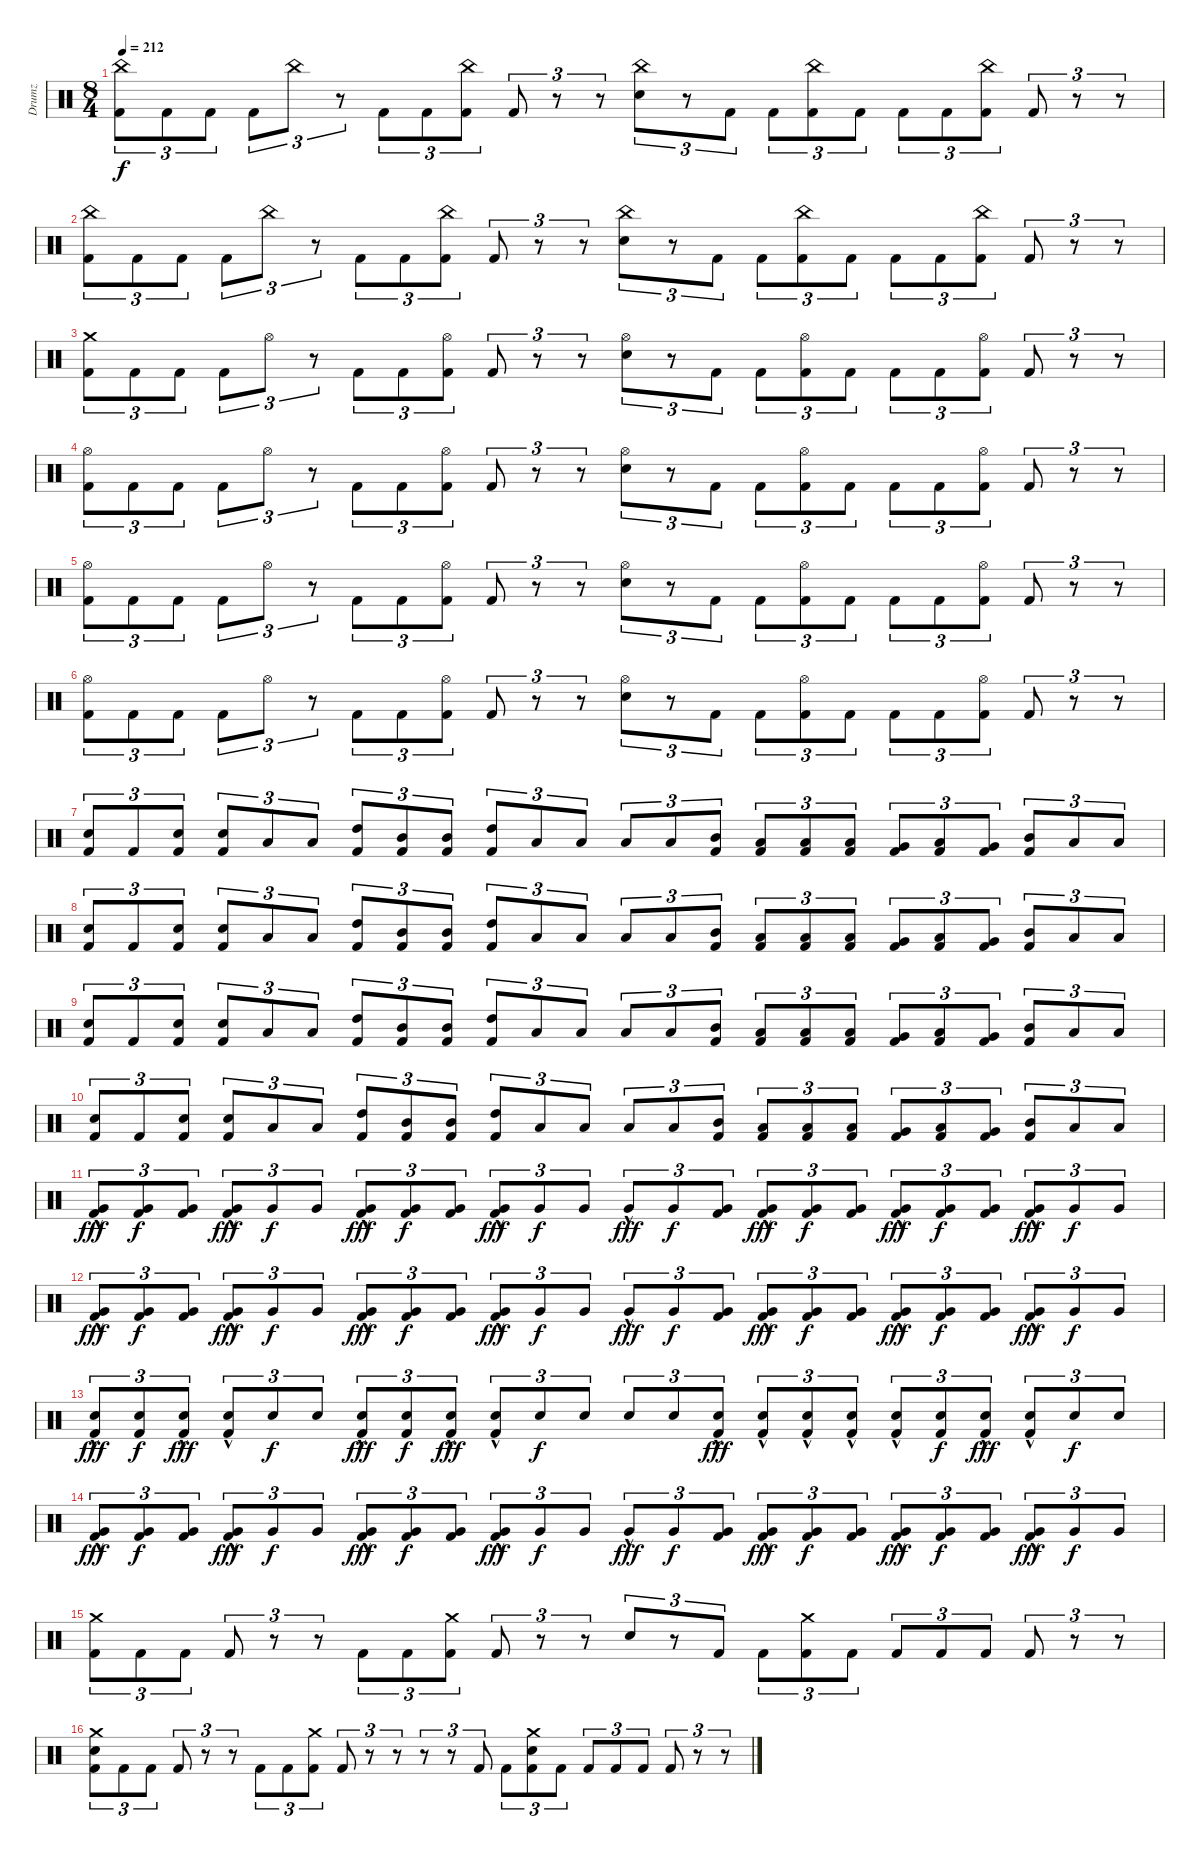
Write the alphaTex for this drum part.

\track ("Drumz" "Drumz") {instrument percussion}
\staff {score}
\articulation defaults
\ts (8 4)
\tempo 212
\clef neutral
\ks c
("China (hit)" "Kick (hit) 2").8{tu (3 2) dy f} "Kick (hit) 2".8{tu (3 2)} "Kick (hit) 2".8{tu (3 2)} "Kick (hit) 2".8{tu (3 2)} "China (hit)".8{tu (3 2)} r.8{tu (3 2)} "Kick (hit) 2".8{tu (3 2)} "Kick (hit) 2".8{tu (3 2)} ("China (hit)" "Kick (hit) 2").8{tu (3 2)} "Kick (hit) 2".8{tu (3 2)} r.8{tu (3 2)} r.8{tu (3 2)} ("China (hit)" "Electric Snare (hit)").8{tu (3 2)} r.8{tu (3 2)} "Kick (hit) 2".8{tu (3 2)} "Kick (hit) 2".8{tu (3 2)} ("China (hit)" "Kick (hit) 2").8{tu (3 2)} "Kick (hit) 2".8{tu (3 2)} "Kick (hit) 2".8{tu (3 2)} "Kick (hit) 2".8{tu (3 2)} ("China (hit)" "Kick (hit) 2").8{tu (3 2)} "Kick (hit) 2".8{tu (3 2)} r.8{tu (3 2)} r.8{tu (3 2)} |
("China (hit)" "Kick (hit) 2").8{tu (3 2)} "Kick (hit) 2".8{tu (3 2)} "Kick (hit) 2".8{tu (3 2)} "Kick (hit) 2".8{tu (3 2)} "China (hit)".8{tu (3 2)} r.8{tu (3 2)} "Kick (hit) 2".8{tu (3 2)} "Kick (hit) 2".8{tu (3 2)} ("China (hit)" "Kick (hit) 2").8{tu (3 2)} "Kick (hit) 2".8{tu (3 2)} r.8{tu (3 2)} r.8{tu (3 2)} ("China (hit)" "Electric Snare (hit)").8{tu (3 2)} r.8{tu (3 2)} "Kick (hit) 2".8{tu (3 2)} "Kick (hit) 2".8{tu (3 2)} ("China (hit)" "Kick (hit) 2").8{tu (3 2)} "Kick (hit) 2".8{tu (3 2)} "Kick (hit) 2".8{tu (3 2)} "Kick (hit) 2".8{tu (3 2)} ("China (hit)" "Kick (hit) 2").8{tu (3 2)} "Kick (hit) 2".8{tu (3 2)} r.8{tu (3 2)} r.8{tu (3 2)} |
("Crash medium (hit)" "Kick (hit) 2").8{tu (3 2)} "Kick (hit) 2".8{tu (3 2)} "Kick (hit) 2".8{tu (3 2)} "Kick (hit) 2".8{tu (3 2)} "Hi-Hat (open)".8{tu (3 2)} r.8{tu (3 2)} "Kick (hit) 2".8{tu (3 2)} "Kick (hit) 2".8{tu (3 2)} ("Hi-Hat (open)" "Kick (hit) 2").8{tu (3 2)} "Kick (hit) 2".8{tu (3 2)} r.8{tu (3 2)} r.8{tu (3 2)} ("Hi-Hat (open)" "Electric Snare (hit)").8{tu (3 2)} r.8{tu (3 2)} "Kick (hit) 2".8{tu (3 2)} "Kick (hit) 2".8{tu (3 2)} ("Hi-Hat (open)" "Kick (hit) 2").8{tu (3 2)} "Kick (hit) 2".8{tu (3 2)} "Kick (hit) 2".8{tu (3 2)} "Kick (hit) 2".8{tu (3 2)} ("Hi-Hat (open)" "Kick (hit) 2").8{tu (3 2)} "Kick (hit) 2".8{tu (3 2)} r.8{tu (3 2)} r.8{tu (3 2)} |
("Hi-Hat (open)" "Kick (hit) 2").8{tu (3 2)} "Kick (hit) 2".8{tu (3 2)} "Kick (hit) 2".8{tu (3 2)} "Kick (hit) 2".8{tu (3 2)} "Hi-Hat (open)".8{tu (3 2)} r.8{tu (3 2)} "Kick (hit) 2".8{tu (3 2)} "Kick (hit) 2".8{tu (3 2)} ("Hi-Hat (open)" "Kick (hit) 2").8{tu (3 2)} "Kick (hit) 2".8{tu (3 2)} r.8{tu (3 2)} r.8{tu (3 2)} ("Hi-Hat (open)" "Electric Snare (hit)").8{tu (3 2)} r.8{tu (3 2)} "Kick (hit) 2".8{tu (3 2)} "Kick (hit) 2".8{tu (3 2)} ("Hi-Hat (open)" "Kick (hit) 2").8{tu (3 2)} "Kick (hit) 2".8{tu (3 2)} "Kick (hit) 2".8{tu (3 2)} "Kick (hit) 2".8{tu (3 2)} ("Hi-Hat (open)" "Kick (hit) 2").8{tu (3 2)} "Kick (hit) 2".8{tu (3 2)} r.8{tu (3 2)} r.8{tu (3 2)} |
("Hi-Hat (open)" "Kick (hit) 2").8{tu (3 2)} "Kick (hit) 2".8{tu (3 2)} "Kick (hit) 2".8{tu (3 2)} "Kick (hit) 2".8{tu (3 2)} "Hi-Hat (open)".8{tu (3 2)} r.8{tu (3 2)} "Kick (hit) 2".8{tu (3 2)} "Kick (hit) 2".8{tu (3 2)} ("Hi-Hat (open)" "Kick (hit) 2").8{tu (3 2)} "Kick (hit) 2".8{tu (3 2)} r.8{tu (3 2)} r.8{tu (3 2)} ("Hi-Hat (open)" "Electric Snare (hit)").8{tu (3 2)} r.8{tu (3 2)} "Kick (hit) 2".8{tu (3 2)} "Kick (hit) 2".8{tu (3 2)} ("Hi-Hat (open)" "Kick (hit) 2").8{tu (3 2)} "Kick (hit) 2".8{tu (3 2)} "Kick (hit) 2".8{tu (3 2)} "Kick (hit) 2".8{tu (3 2)} ("Hi-Hat (open)" "Kick (hit) 2").8{tu (3 2)} "Kick (hit) 2".8{tu (3 2)} r.8{tu (3 2)} r.8{tu (3 2)} |
("Hi-Hat (open)" "Kick (hit) 2").8{tu (3 2)} "Kick (hit) 2".8{tu (3 2)} "Kick (hit) 2".8{tu (3 2)} "Kick (hit) 2".8{tu (3 2)} "Hi-Hat (open)".8{tu (3 2)} r.8{tu (3 2)} "Kick (hit) 2".8{tu (3 2)} "Kick (hit) 2".8{tu (3 2)} ("Hi-Hat (open)" "Kick (hit) 2").8{tu (3 2)} "Kick (hit) 2".8{tu (3 2)} r.8{tu (3 2)} r.8{tu (3 2)} ("Hi-Hat (open)" "Electric Snare (hit)").8{tu (3 2)} r.8{tu (3 2)} "Kick (hit) 2".8{tu (3 2)} "Kick (hit) 2".8{tu (3 2)} ("Hi-Hat (open)" "Kick (hit) 2").8{tu (3 2)} "Kick (hit) 2".8{tu (3 2)} "Kick (hit) 2".8{tu (3 2)} "Kick (hit) 2".8{tu (3 2)} ("Hi-Hat (open)" "Kick (hit) 2").8{tu (3 2)} "Kick (hit) 2".8{tu (3 2)} r.8{tu (3 2)} r.8{tu (3 2)} |
("Electric Snare (hit)" "Kick (hit) 2").8{tu (3 2)} "Kick (hit) 2".8{tu (3 2)} ("Electric Snare (hit)" "Kick (hit) 2").8{tu (3 2)} ("Electric Snare (hit)" "Kick (hit) 2").8{tu (3 2)} "Low Floor Tom (hit)".8{tu (3 2)} "Low Floor Tom (hit)".8{tu (3 2)} ("High Tom (hit)" "Kick (hit) 2").8{tu (3 2)} ("Mid Tom (hit)" "Kick (hit) 2").8{tu (3 2)} ("Mid Tom (hit)" "Kick (hit) 2").8{tu (3 2)} ("High Tom (hit)" "Kick (hit) 2").8{tu (3 2)} "Low Floor Tom (hit)".8{tu (3 2)} "Low Floor Tom (hit)".8{tu (3 2)} "Low Floor Tom (hit)".8{tu (3 2)} "Low Floor Tom (hit)".8{tu (3 2)} ("Mid Tom (hit)" "Kick (hit) 2").8{tu (3 2)} ("Low Tom (hit)" "Kick (hit) 2").8{tu (3 2)} ("Low Tom (hit)" "Kick (hit) 2").8{tu (3 2)} ("Low Tom (hit)" "Kick (hit) 2").8{tu (3 2)} ("Very Low Tom (hit)" "Kick (hit) 2").8{tu (3 2)} ("Low Tom (hit)" "Kick (hit) 2").8{tu (3 2)} ("Very Low Tom (hit)" "Kick (hit) 2").8{tu (3 2)} ("Mid Tom (hit)" "Kick (hit) 2").8{tu (3 2)} "Low Floor Tom (hit)".8{tu (3 2)} "Low Floor Tom (hit)".8{tu (3 2)} |
("Electric Snare (hit)" "Kick (hit) 2").8{tu (3 2)} "Kick (hit) 2".8{tu (3 2)} ("Electric Snare (hit)" "Kick (hit) 2").8{tu (3 2)} ("Electric Snare (hit)" "Kick (hit) 2").8{tu (3 2)} "Low Floor Tom (hit)".8{tu (3 2)} "Low Floor Tom (hit)".8{tu (3 2)} ("High Tom (hit)" "Kick (hit) 2").8{tu (3 2)} ("Mid Tom (hit)" "Kick (hit) 2").8{tu (3 2)} ("Mid Tom (hit)" "Kick (hit) 2").8{tu (3 2)} ("High Tom (hit)" "Kick (hit) 2").8{tu (3 2)} "Low Floor Tom (hit)".8{tu (3 2)} "Low Floor Tom (hit)".8{tu (3 2)} "Low Floor Tom (hit)".8{tu (3 2)} "Low Floor Tom (hit)".8{tu (3 2)} ("Mid Tom (hit)" "Kick (hit) 2").8{tu (3 2)} ("Low Tom (hit)" "Kick (hit) 2").8{tu (3 2)} ("Low Tom (hit)" "Kick (hit) 2").8{tu (3 2)} ("Low Tom (hit)" "Kick (hit) 2").8{tu (3 2)} ("Very Low Tom (hit)" "Kick (hit) 2").8{tu (3 2)} ("Low Tom (hit)" "Kick (hit) 2").8{tu (3 2)} ("Very Low Tom (hit)" "Kick (hit) 2").8{tu (3 2)} ("Mid Tom (hit)" "Kick (hit) 2").8{tu (3 2)} "Low Floor Tom (hit)".8{tu (3 2)} "Low Floor Tom (hit)".8{tu (3 2)} |
("Electric Snare (hit)" "Kick (hit) 2").8{tu (3 2)} "Kick (hit) 2".8{tu (3 2)} ("Electric Snare (hit)" "Kick (hit) 2").8{tu (3 2)} ("Electric Snare (hit)" "Kick (hit) 2").8{tu (3 2)} "Low Floor Tom (hit)".8{tu (3 2)} "Low Floor Tom (hit)".8{tu (3 2)} ("High Tom (hit)" "Kick (hit) 2").8{tu (3 2)} ("Mid Tom (hit)" "Kick (hit) 2").8{tu (3 2)} ("Mid Tom (hit)" "Kick (hit) 2").8{tu (3 2)} ("High Tom (hit)" "Kick (hit) 2").8{tu (3 2)} "Low Floor Tom (hit)".8{tu (3 2)} "Low Floor Tom (hit)".8{tu (3 2)} "Low Floor Tom (hit)".8{tu (3 2)} "Low Floor Tom (hit)".8{tu (3 2)} ("Mid Tom (hit)" "Kick (hit) 2").8{tu (3 2)} ("Low Tom (hit)" "Kick (hit) 2").8{tu (3 2)} ("Low Tom (hit)" "Kick (hit) 2").8{tu (3 2)} ("Low Tom (hit)" "Kick (hit) 2").8{tu (3 2)} ("Very Low Tom (hit)" "Kick (hit) 2").8{tu (3 2)} ("Low Tom (hit)" "Kick (hit) 2").8{tu (3 2)} ("Very Low Tom (hit)" "Kick (hit) 2").8{tu (3 2)} ("Mid Tom (hit)" "Kick (hit) 2").8{tu (3 2)} "Low Floor Tom (hit)".8{tu (3 2)} "Low Floor Tom (hit)".8{tu (3 2)} |
("Electric Snare (hit)" "Kick (hit) 2").8{tu (3 2)} "Kick (hit) 2".8{tu (3 2)} ("Electric Snare (hit)" "Kick (hit) 2").8{tu (3 2)} ("Electric Snare (hit)" "Kick (hit) 2").8{tu (3 2)} "Low Floor Tom (hit)".8{tu (3 2)} "Low Floor Tom (hit)".8{tu (3 2)} ("High Tom (hit)" "Kick (hit) 2").8{tu (3 2)} ("Mid Tom (hit)" "Kick (hit) 2").8{tu (3 2)} ("Mid Tom (hit)" "Kick (hit) 2").8{tu (3 2)} ("High Tom (hit)" "Kick (hit) 2").8{tu (3 2)} "Low Floor Tom (hit)".8{tu (3 2)} "Low Floor Tom (hit)".8{tu (3 2)} "Low Floor Tom (hit)".8{tu (3 2)} "Low Floor Tom (hit)".8{tu (3 2)} ("Mid Tom (hit)" "Kick (hit) 2").8{tu (3 2)} ("Low Tom (hit)" "Kick (hit) 2").8{tu (3 2)} ("Low Tom (hit)" "Kick (hit) 2").8{tu (3 2)} ("Low Tom (hit)" "Kick (hit) 2").8{tu (3 2)} ("Very Low Tom (hit)" "Kick (hit) 2").8{tu (3 2)} ("Low Tom (hit)" "Kick (hit) 2").8{tu (3 2)} ("Very Low Tom (hit)" "Kick (hit) 2").8{tu (3 2)} ("Mid Tom (hit)" "Kick (hit) 2").8{tu (3 2)} "Low Floor Tom (hit)".8{tu (3 2)} "Low Floor Tom (hit)".8{tu (3 2)} |
("Very Low Tom (hit)"{hac} "Kick (hit) 2").8{tu (3 2) dy fff} ("Very Low Tom (hit)" "Kick (hit) 2").8{tu (3 2) dy f} ("Very Low Tom (hit)" "Kick (hit) 2").8{tu (3 2)} ("Very Low Tom (hit)"{hac} "Kick (hit) 2").8{tu (3 2) dy fff} "Very Low Tom (hit)".8{tu (3 2) dy f} "Very Low Tom (hit)".8{tu (3 2)} ("Very Low Tom (hit)"{hac} "Kick (hit) 2").8{tu (3 2) dy fff} ("Very Low Tom (hit)" "Kick (hit) 2").8{tu (3 2) dy f} ("Very Low Tom (hit)" "Kick (hit) 2").8{tu (3 2)} ("Very Low Tom (hit)"{hac} "Kick (hit) 2").8{tu (3 2) dy fff} "Very Low Tom (hit)".8{tu (3 2) dy f} "Very Low Tom (hit)".8{tu (3 2)} "Very Low Tom (hit)"{hac}.8{tu (3 2) dy fff} "Very Low Tom (hit)".8{tu (3 2) dy f} ("Very Low Tom (hit)" "Kick (hit) 2").8{tu (3 2)} ("Very Low Tom (hit)"{hac} "Kick (hit) 2").8{tu (3 2) dy fff} ("Very Low Tom (hit)" "Kick (hit) 2").8{tu (3 2) dy f} ("Very Low Tom (hit)" "Kick (hit) 2").8{tu (3 2)} ("Very Low Tom (hit)"{hac} "Kick (hit) 2").8{tu (3 2) dy fff} ("Very Low Tom (hit)" "Kick (hit) 2").8{tu (3 2) dy f} ("Very Low Tom (hit)" "Kick (hit) 2").8{tu (3 2)} ("Very Low Tom (hit)"{hac} "Kick (hit) 2").8{tu (3 2) dy fff} "Very Low Tom (hit)".8{tu (3 2) dy f} "Very Low Tom (hit)".8{tu (3 2)} |
("Very Low Tom (hit)"{hac} "Kick (hit) 2").8{tu (3 2) dy fff} ("Very Low Tom (hit)" "Kick (hit) 2").8{tu (3 2) dy f} ("Very Low Tom (hit)" "Kick (hit) 2").8{tu (3 2)} ("Very Low Tom (hit)"{hac} "Kick (hit) 2").8{tu (3 2) dy fff} "Very Low Tom (hit)".8{tu (3 2) dy f} "Very Low Tom (hit)".8{tu (3 2)} ("Very Low Tom (hit)"{hac} "Kick (hit) 2").8{tu (3 2) dy fff} ("Very Low Tom (hit)" "Kick (hit) 2").8{tu (3 2) dy f} ("Very Low Tom (hit)" "Kick (hit) 2").8{tu (3 2)} ("Very Low Tom (hit)"{hac} "Kick (hit) 2").8{tu (3 2) dy fff} "Very Low Tom (hit)".8{tu (3 2) dy f} "Very Low Tom (hit)".8{tu (3 2)} "Very Low Tom (hit)"{hac}.8{tu (3 2) dy fff} "Very Low Tom (hit)".8{tu (3 2) dy f} ("Very Low Tom (hit)" "Kick (hit) 2").8{tu (3 2)} ("Very Low Tom (hit)"{hac} "Kick (hit) 2").8{tu (3 2) dy fff} ("Very Low Tom (hit)" "Kick (hit) 2").8{tu (3 2) dy f} ("Very Low Tom (hit)" "Kick (hit) 2").8{tu (3 2)} ("Very Low Tom (hit)"{hac} "Kick (hit) 2").8{tu (3 2) dy fff} ("Very Low Tom (hit)" "Kick (hit) 2").8{tu (3 2) dy f} ("Very Low Tom (hit)" "Kick (hit) 2").8{tu (3 2)} ("Very Low Tom (hit)"{hac} "Kick (hit) 2").8{tu (3 2) dy fff} "Very Low Tom (hit)".8{tu (3 2) dy f} "Very Low Tom (hit)".8{tu (3 2)} |
("Electric Snare (hit)"{hac} "Kick (hit) 2").8{tu (3 2) dy fff} ("Electric Snare (hit)" "Kick (hit) 2").8{tu (3 2) dy f} ("Electric Snare (hit)"{hac} "Kick (hit) 2").8{tu (3 2) dy fff} ("Electric Snare (hit)"{hac} "Kick (hit) 2").8{tu (3 2)} "Electric Snare (hit)".8{tu (3 2) dy f} "Electric Snare (hit)".8{tu (3 2)} ("Electric Snare (hit)"{hac} "Kick (hit) 2").8{tu (3 2) dy fff} ("Electric Snare (hit)" "Kick (hit) 2").8{tu (3 2) dy f} ("Electric Snare (hit)"{hac} "Kick (hit) 2").8{tu (3 2) dy fff} ("Electric Snare (hit)"{hac} "Kick (hit) 2").8{tu (3 2)} "Electric Snare (hit)".8{tu (3 2) dy f} "Electric Snare (hit)".8{tu (3 2)} "Electric Snare (hit)".8{tu (3 2)} "Electric Snare (hit)".8{tu (3 2)} ("Electric Snare (hit)"{hac} "Kick (hit) 2").8{tu (3 2) dy fff} ("Electric Snare (hit)"{hac} "Kick (hit) 2").8{tu (3 2)} ("Electric Snare (hit)"{hac} "Kick (hit) 2").8{tu (3 2)} ("Electric Snare (hit)"{hac} "Kick (hit) 2").8{tu (3 2)} ("Electric Snare (hit)"{hac} "Kick (hit) 2").8{tu (3 2)} ("Electric Snare (hit)" "Kick (hit) 2").8{tu (3 2) dy f} ("Electric Snare (hit)"{hac} "Kick (hit) 2").8{tu (3 2) dy fff} ("Electric Snare (hit)"{hac} "Kick (hit) 2").8{tu (3 2)} "Electric Snare (hit)".8{tu (3 2) dy f} "Electric Snare (hit)".8{tu (3 2)} |
("Very Low Tom (hit)"{hac} "Kick (hit) 2").8{tu (3 2) dy fff} ("Very Low Tom (hit)" "Kick (hit) 2").8{tu (3 2) dy f} ("Very Low Tom (hit)" "Kick (hit) 2").8{tu (3 2)} ("Very Low Tom (hit)"{hac} "Kick (hit) 2").8{tu (3 2) dy fff} "Very Low Tom (hit)".8{tu (3 2) dy f} "Very Low Tom (hit)".8{tu (3 2)} ("Very Low Tom (hit)"{hac} "Kick (hit) 2").8{tu (3 2) dy fff} ("Very Low Tom (hit)" "Kick (hit) 2").8{tu (3 2) dy f} ("Very Low Tom (hit)" "Kick (hit) 2").8{tu (3 2)} ("Very Low Tom (hit)"{hac} "Kick (hit) 2").8{tu (3 2) dy fff} "Very Low Tom (hit)".8{tu (3 2) dy f} "Very Low Tom (hit)".8{tu (3 2)} "Very Low Tom (hit)"{hac}.8{tu (3 2) dy fff} "Very Low Tom (hit)".8{tu (3 2) dy f} ("Very Low Tom (hit)" "Kick (hit) 2").8{tu (3 2)} ("Very Low Tom (hit)"{hac} "Kick (hit) 2").8{tu (3 2) dy fff} ("Very Low Tom (hit)" "Kick (hit) 2").8{tu (3 2) dy f} ("Very Low Tom (hit)" "Kick (hit) 2").8{tu (3 2)} ("Very Low Tom (hit)"{hac} "Kick (hit) 2").8{tu (3 2) dy fff} ("Very Low Tom (hit)" "Kick (hit) 2").8{tu (3 2) dy f} ("Very Low Tom (hit)" "Kick (hit) 2").8{tu (3 2)} ("Very Low Tom (hit)"{hac} "Kick (hit) 2").8{tu (3 2) dy fff} "Very Low Tom (hit)".8{tu (3 2) dy f} "Very Low Tom (hit)".8{tu (3 2)} |
("Crash medium (hit)" "Kick (hit) 2").8{tu (3 2)} "Kick (hit) 2".8{tu (3 2)} "Kick (hit) 2".8{tu (3 2)} "Kick (hit) 2".8{tu (3 2)} r.8{tu (3 2)} r.8{tu (3 2)} "Kick (hit) 2".8{tu (3 2)} "Kick (hit) 2".8{tu (3 2)} ("Crash medium (hit)" "Kick (hit) 2").8{tu (3 2)} "Kick (hit) 2".8{tu (3 2)} r.8{tu (3 2)} r.8{tu (3 2)} "Electric Snare (hit)".8{tu (3 2)} r.8{tu (3 2)} "Kick (hit) 2".8{tu (3 2)} "Kick (hit) 2".8{tu (3 2)} ("Crash medium (hit)" "Kick (hit) 2").8{tu (3 2)} "Kick (hit) 2".8{tu (3 2)} "Kick (hit) 2".8{tu (3 2)} "Kick (hit) 2".8{tu (3 2)} "Kick (hit) 2".8{tu (3 2)} "Kick (hit) 2".8{tu (3 2)} r.8{tu (3 2)} r.8{tu (3 2)} |
("Crash medium (hit)" "Electric Snare (hit)" "Kick (hit) 2").8{tu (3 2)} "Kick (hit) 2".8{tu (3 2)} "Kick (hit) 2".8{tu (3 2)} "Kick (hit) 2".8{tu (3 2)} r.8{tu (3 2)} r.8{tu (3 2)} "Kick (hit) 2".8{tu (3 2)} "Kick (hit) 2".8{tu (3 2)} ("Crash medium (hit)" "Kick (hit) 2").8{tu (3 2)} "Kick (hit) 2".8{tu (3 2)} r.8{tu (3 2)} r.8{tu (3 2)} r.8{tu (3 2)} r.8{tu (3 2)} "Kick (hit) 2".8{tu (3 2)} "Kick (hit) 2".8{tu (3 2)} ("Crash medium (hit)" "Electric Snare (hit)" "Kick (hit) 2").8{tu (3 2)} "Kick (hit) 2".8{tu (3 2)} "Kick (hit) 2".8{tu (3 2)} "Kick (hit) 2".8{tu (3 2)} "Kick (hit) 2".8{tu (3 2)} "Kick (hit) 2".8{tu (3 2)} r.8{tu (3 2)} r.8{tu (3 2)}
